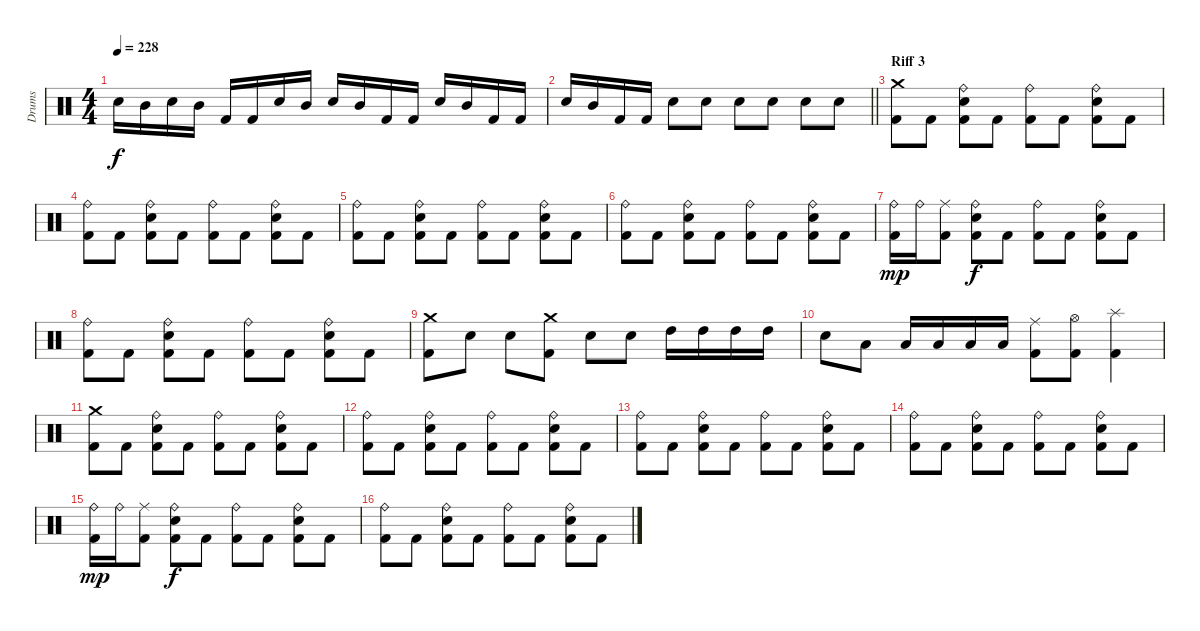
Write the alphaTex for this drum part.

\track ("Drums" "Drums") {instrument percussion}
\staff {score}
\articulation defaults
\ts (4 4)
\tempo 228
\clef neutral
\ks c "Electric Snare (hit)".16{dy f} "Mid Tom (hit)".16 "Electric Snare (hit)".16 "Mid Tom (hit)".16 "Kick (hit) 2".16 "Kick (hit) 2".16 "Electric Snare (hit)".16 "Mid Tom (hit)".16 "Electric Snare (hit)".16 "Mid Tom (hit)".16 "Kick (hit) 2".16 "Kick (hit) 2".16 "Electric Snare (hit)".16 "Mid Tom (hit)".16 "Kick (hit) 2".16 "Kick (hit) 2".16
|
\barLineRight lightlight "Electric Snare (hit)".16 "Mid Tom (hit)".16 "Kick (hit) 2".16 "Kick (hit) 2".16 "Electric Snare (hit)".8 "Electric Snare (hit)".8 "Electric Snare (hit)".8 "Electric Snare (hit)".8 "Electric Snare (hit)".8 "Electric Snare (hit)".8
|
\section ("" "Riff 3")
("Crash medium (hit)" "Kick (hit) 2").8 "Kick (hit) 2".8 ("Ride (bell)" "Electric Snare (hit)" "Kick (hit) 2").8 "Kick (hit) 2".8 ("Ride (bell)" "Kick (hit) 2").8 "Kick (hit) 2".8 ("Ride (bell)" "Electric Snare (hit)" "Kick (hit) 2").8 "Kick (hit) 2".8 |
("Ride (bell)" "Kick (hit) 2").8 "Kick (hit) 2".8 ("Ride (bell)" "Electric Snare (hit)" "Kick (hit) 2").8 "Kick (hit) 2".8 ("Ride (bell)" "Kick (hit) 2").8 "Kick (hit) 2".8 ("Ride (bell)" "Electric Snare (hit)" "Kick (hit) 2").8 "Kick (hit) 2".8 |
("Ride (bell)" "Kick (hit) 2").8 "Kick (hit) 2".8 ("Ride (bell)" "Electric Snare (hit)" "Kick (hit) 2").8 "Kick (hit) 2".8 ("Ride (bell)" "Kick (hit) 2").8 "Kick (hit) 2".8 ("Ride (bell)" "Electric Snare (hit)" "Kick (hit) 2").8 "Kick (hit) 2".8 |
("Ride (bell)" "Kick (hit) 2").8 "Kick (hit) 2".8 ("Ride (bell)" "Electric Snare (hit)" "Kick (hit) 2").8 "Kick (hit) 2".8 ("Ride (bell)" "Kick (hit) 2").8 "Kick (hit) 2".8 ("Ride (bell)" "Electric Snare (hit)" "Kick (hit) 2").8 "Kick (hit) 2".8 |
("Ride (bell)" "Kick (hit) 2").16{dy mp} "Ride (bell)".16 ("Ride (middle)" "Kick (hit) 2").8 ("Ride (bell)" "Electric Snare (hit)" "Kick (hit) 2").8{dy f} "Kick (hit) 2".8 ("Ride (bell)" "Kick (hit) 2").8 "Kick (hit) 2".8 ("Ride (bell)" "Electric Snare (hit)" "Kick (hit) 2").8 "Kick (hit) 2".8 |
("Ride (bell)" "Kick (hit) 2").8 "Kick (hit) 2".8 ("Ride (bell)" "Electric Snare (hit)" "Kick (hit) 2").8 "Kick (hit) 2".8 ("Ride (bell)" "Kick (hit) 2").8 "Kick (hit) 2".8 ("Ride (bell)" "Electric Snare (hit)" "Kick (hit) 2").8 "Kick (hit) 2".8 |
("Crash medium (hit)" "Kick (hit) 2").8 "Electric Snare (hit)".8 "Electric Snare (hit)".8 ("Kick (hit) 2" "Crash medium (hit)").8 "Electric Snare (hit)".8 "Electric Snare (hit)".8 "High Tom (hit)".16 "High Tom (hit)".16 "High Tom (hit)".16 "High Tom (hit)".16 |
"Electric Snare (hit)".8 "Low Tom (hit)".8 "Low Tom (hit)".16 "Low Tom (hit)".16 "Low Tom (hit)".16 "Low Tom (hit)".16 ("Ride (middle)" "Kick (hit) 2").8 ("Hi-Hat (open)" "Kick (hit) 2").8 ("Splash (hit)" "Kick (hit) 2").4 |
("Crash medium (hit)" "Kick (hit) 2").8 "Kick (hit) 2".8 ("Ride (bell)" "Electric Snare (hit)" "Kick (hit) 2").8 "Kick (hit) 2".8 ("Ride (bell)" "Kick (hit) 2").8 "Kick (hit) 2".8 ("Ride (bell)" "Electric Snare (hit)" "Kick (hit) 2").8 "Kick (hit) 2".8 |
("Ride (bell)" "Kick (hit) 2").8 "Kick (hit) 2".8 ("Ride (bell)" "Electric Snare (hit)" "Kick (hit) 2").8 "Kick (hit) 2".8 ("Ride (bell)" "Kick (hit) 2").8 "Kick (hit) 2".8 ("Ride (bell)" "Electric Snare (hit)" "Kick (hit) 2").8 "Kick (hit) 2".8 |
("Ride (bell)" "Kick (hit) 2").8 "Kick (hit) 2".8 ("Ride (bell)" "Electric Snare (hit)" "Kick (hit) 2").8 "Kick (hit) 2".8 ("Ride (bell)" "Kick (hit) 2").8 "Kick (hit) 2".8 ("Ride (bell)" "Electric Snare (hit)" "Kick (hit) 2").8 "Kick (hit) 2".8 |
("Ride (bell)" "Kick (hit) 2").8 "Kick (hit) 2".8 ("Ride (bell)" "Electric Snare (hit)" "Kick (hit) 2").8 "Kick (hit) 2".8 ("Ride (bell)" "Kick (hit) 2").8 "Kick (hit) 2".8 ("Ride (bell)" "Electric Snare (hit)" "Kick (hit) 2").8 "Kick (hit) 2".8 |
("Ride (bell)" "Kick (hit) 2").16{dy mp} "Ride (bell)".16 ("Ride (middle)" "Kick (hit) 2").8 ("Ride (bell)" "Electric Snare (hit)" "Kick (hit) 2").8{dy f} "Kick (hit) 2".8 ("Ride (bell)" "Kick (hit) 2").8 "Kick (hit) 2".8 ("Ride (bell)" "Electric Snare (hit)" "Kick (hit) 2").8 "Kick (hit) 2".8 |
("Ride (bell)" "Kick (hit) 2").8 "Kick (hit) 2".8 ("Ride (bell)" "Electric Snare (hit)" "Kick (hit) 2").8 "Kick (hit) 2".8 ("Ride (bell)" "Kick (hit) 2").8 "Kick (hit) 2".8 ("Ride (bell)" "Electric Snare (hit)" "Kick (hit) 2").8 "Kick (hit) 2".8
